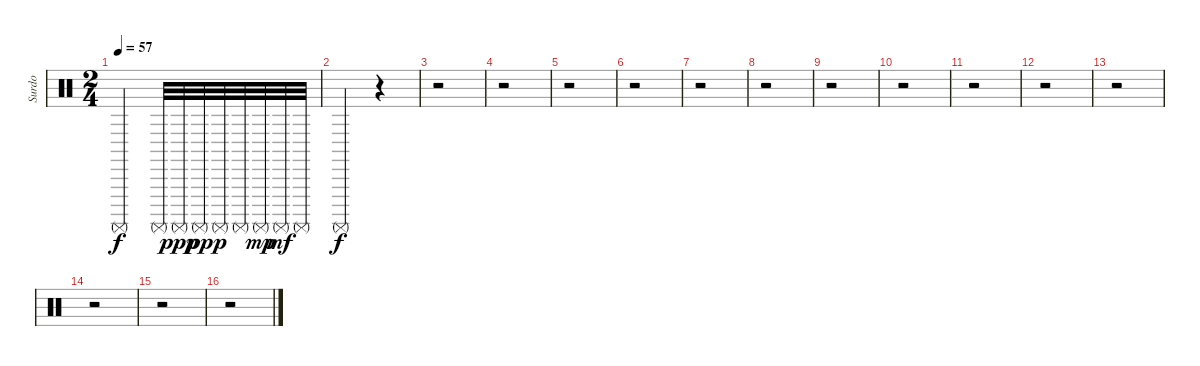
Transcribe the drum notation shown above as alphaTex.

\track ("Surdo" "Surdo") {instrument percussion}
\staff {score}
\articulation defaults
\ts (2 4)
\tempo 57
\clef neutral
\ks c "Surdo (mute)".4{dy f} "Surdo (mute)".32 "Surdo (mute)".32{dy ppp} "Surdo (mute)".32{dy pp} "Surdo (mute)".32{dy p} "Surdo (mute)".32 "Surdo (mute)".32{dy mp} "Surdo (mute)".32{dy mf} "Surdo (mute)".32
|
"Surdo (mute)".4{dy f} r.4 |
r.2 |
r.2 |
r.2 |
r.2 |
r.2 |
r.2 |
r.2 |
r.2 |
r.2 |
r.2 |
r.2 |
r.2 |
r.2 |
r.2
